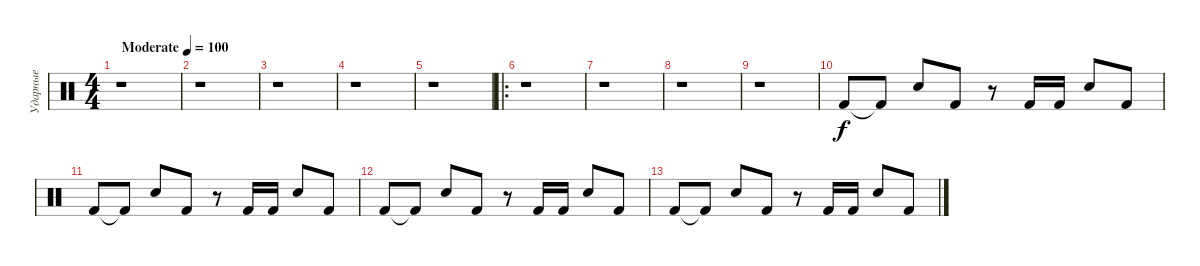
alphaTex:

\track ("Ударные" "Ударные") {instrument percussion}
\staff {score}
\articulation defaults
\ts (4 4)
\tempo (100 "Moderate")
\clef neutral
\ks c
r.1{dy f} |
r.1 |
r.1 |
r.1 |
r.1 |
\ro
r.1 |
r.1 |
r.1 |
r.1 |
"Kick (hit) 2".8 "Kick (hit) 2"{t}.8 "Snare (hit) 2".8 "Kick (hit) 2".8 r.8 "Kick (hit) 2".16 "Kick (hit) 2".16 "Snare (hit) 2".8 "Kick (hit) 2".8 |
"Kick (hit) 2".8 "Kick (hit) 2"{t}.8 "Snare (hit) 2".8 "Kick (hit) 2".8 r.8 "Kick (hit) 2".16 "Kick (hit) 2".16 "Snare (hit) 2".8 "Kick (hit) 2".8 |
"Kick (hit) 2".8 "Kick (hit) 2"{t}.8 "Snare (hit) 2".8 "Kick (hit) 2".8 r.8 "Kick (hit) 2".16 "Kick (hit) 2".16 "Snare (hit) 2".8 "Kick (hit) 2".8 |
"Kick (hit) 2".8 "Kick (hit) 2"{t}.8 "Snare (hit) 2".8 "Kick (hit) 2".8 r.8 "Kick (hit) 2".16 "Kick (hit) 2".16 "Snare (hit) 2".8 "Kick (hit) 2".8
